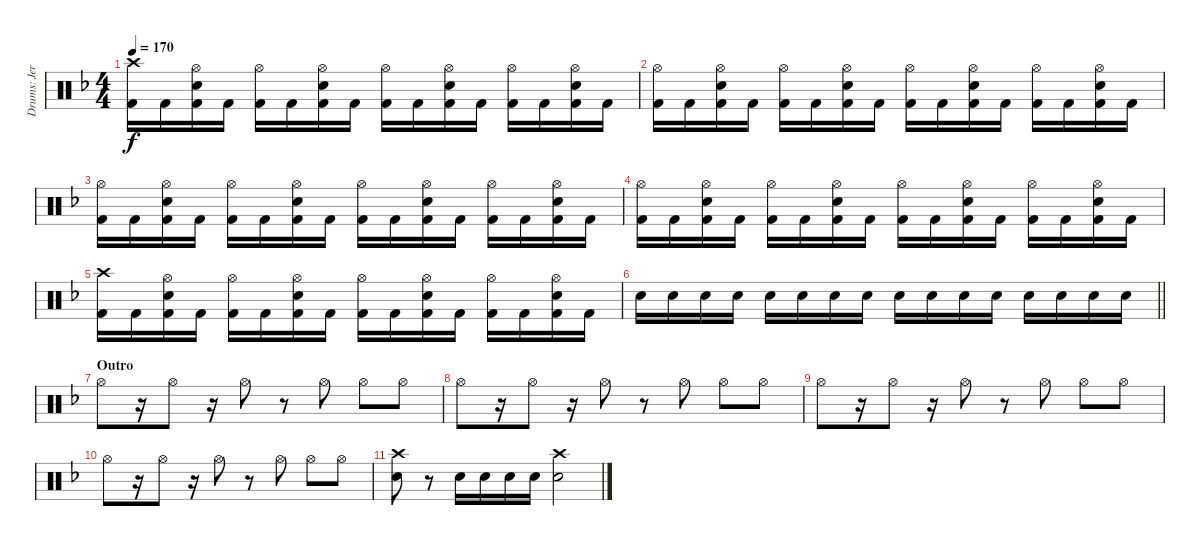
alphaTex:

\track ("Drums: Jere Luokkamäki" "Drums: Jer") {instrument percussion}
\staff {score}
\articulation defaults
\ts (4 4)
\tempo 170
\clef neutral
\ks dminor
("Crash high (hit)" "Kick (hit) 2").16{dy f} "Kick (hit) 2".16 ("Hi-Hat (open)" "Electric Snare (hit)" "Kick (hit) 2").16 "Kick (hit) 2".16 ("Hi-Hat (open)" "Kick (hit) 2").16 "Kick (hit) 2".16 ("Hi-Hat (open)" "Electric Snare (hit)" "Kick (hit) 2").16 "Kick (hit) 2".16 ("Hi-Hat (open)" "Kick (hit) 2").16 "Kick (hit) 2".16 ("Hi-Hat (open)" "Electric Snare (hit)" "Kick (hit) 2").16 "Kick (hit) 2".16 ("Hi-Hat (open)" "Kick (hit) 2").16 "Kick (hit) 2".16 ("Hi-Hat (open)" "Electric Snare (hit)" "Kick (hit) 2").16 "Kick (hit) 2".16 |
("Hi-Hat (open)" "Kick (hit) 2").16 "Kick (hit) 2".16 ("Hi-Hat (open)" "Electric Snare (hit)" "Kick (hit) 2").16 "Kick (hit) 2".16 ("Hi-Hat (open)" "Kick (hit) 2").16 "Kick (hit) 2".16 ("Hi-Hat (open)" "Electric Snare (hit)" "Kick (hit) 2").16 "Kick (hit) 2".16 ("Hi-Hat (open)" "Kick (hit) 2").16 "Kick (hit) 2".16 ("Hi-Hat (open)" "Electric Snare (hit)" "Kick (hit) 2").16 "Kick (hit) 2".16 ("Hi-Hat (open)" "Kick (hit) 2").16 "Kick (hit) 2".16 ("Hi-Hat (open)" "Electric Snare (hit)" "Kick (hit) 2").16 "Kick (hit) 2".16 |
("Hi-Hat (open)" "Kick (hit) 2").16 "Kick (hit) 2".16 ("Hi-Hat (open)" "Electric Snare (hit)" "Kick (hit) 2").16 "Kick (hit) 2".16 ("Hi-Hat (open)" "Kick (hit) 2").16 "Kick (hit) 2".16 ("Hi-Hat (open)" "Electric Snare (hit)" "Kick (hit) 2").16 "Kick (hit) 2".16 ("Hi-Hat (open)" "Kick (hit) 2").16 "Kick (hit) 2".16 ("Hi-Hat (open)" "Electric Snare (hit)" "Kick (hit) 2").16 "Kick (hit) 2".16 ("Hi-Hat (open)" "Kick (hit) 2").16 "Kick (hit) 2".16 ("Hi-Hat (open)" "Electric Snare (hit)" "Kick (hit) 2").16 "Kick (hit) 2".16 |
("Hi-Hat (open)" "Kick (hit) 2").16 "Kick (hit) 2".16 ("Hi-Hat (open)" "Electric Snare (hit)" "Kick (hit) 2").16 "Kick (hit) 2".16 ("Hi-Hat (open)" "Kick (hit) 2").16 "Kick (hit) 2".16 ("Hi-Hat (open)" "Electric Snare (hit)" "Kick (hit) 2").16 "Kick (hit) 2".16 ("Hi-Hat (open)" "Kick (hit) 2").16 "Kick (hit) 2".16 ("Hi-Hat (open)" "Electric Snare (hit)" "Kick (hit) 2").16 "Kick (hit) 2".16 ("Hi-Hat (open)" "Kick (hit) 2").16 "Kick (hit) 2".16 ("Hi-Hat (open)" "Electric Snare (hit)" "Kick (hit) 2").16 "Kick (hit) 2".16 |
("Crash high (hit)" "Kick (hit) 2").16 "Kick (hit) 2".16 ("Hi-Hat (open)" "Electric Snare (hit)" "Kick (hit) 2").16 "Kick (hit) 2".16 ("Hi-Hat (open)" "Kick (hit) 2").16 "Kick (hit) 2".16 ("Hi-Hat (open)" "Electric Snare (hit)" "Kick (hit) 2").16 "Kick (hit) 2".16 ("Hi-Hat (open)" "Kick (hit) 2").16 "Kick (hit) 2".16 ("Hi-Hat (open)" "Electric Snare (hit)" "Kick (hit) 2").16 "Kick (hit) 2".16 ("Hi-Hat (open)" "Kick (hit) 2").16 "Kick (hit) 2".16 ("Hi-Hat (open)" "Electric Snare (hit)" "Kick (hit) 2").16 "Kick (hit) 2".16 |
\barLineRight lightlight "Electric Snare (hit)".16 "Electric Snare (hit)".16 "Electric Snare (hit)".16 "Electric Snare (hit)".16 "Electric Snare (hit)".16 "Electric Snare (hit)".16 "Electric Snare (hit)".16 "Electric Snare (hit)".16 "Electric Snare (hit)".16 "Electric Snare (hit)".16 "Electric Snare (hit)".16 "Electric Snare (hit)".16 "Electric Snare (hit)".16 "Electric Snare (hit)".16 "Electric Snare (hit)".16 "Electric Snare (hit)".16
|
\section ("" "Outro")
"Hi-Hat (open)".8 r.16 "Hi-Hat (open)".8 r.16 "Hi-Hat (open)".8 r.8 "Hi-Hat (open)".8 "Hi-Hat (open)".8 "Hi-Hat (open)".8 |
"Hi-Hat (open)".8 r.16 "Hi-Hat (open)".8 r.16 "Hi-Hat (open)".8 r.8 "Hi-Hat (open)".8 "Hi-Hat (open)".8 "Hi-Hat (open)".8 |
"Hi-Hat (open)".8 r.16 "Hi-Hat (open)".8 r.16 "Hi-Hat (open)".8 r.8 "Hi-Hat (open)".8 "Hi-Hat (open)".8 "Hi-Hat (open)".8 |
"Hi-Hat (open)".8 r.16 "Hi-Hat (open)".8 r.16 "Hi-Hat (open)".8 r.8 "Hi-Hat (open)".8 "Hi-Hat (open)".8 "Hi-Hat (open)".8 |
("Crash high (hit)" "Electric Snare (hit)").8 r.8 "Electric Snare (hit)".16 "Electric Snare (hit)".16 "Electric Snare (hit)".16 "Electric Snare (hit)".16 ("Crash high (hit)" "Electric Snare (hit)").2
